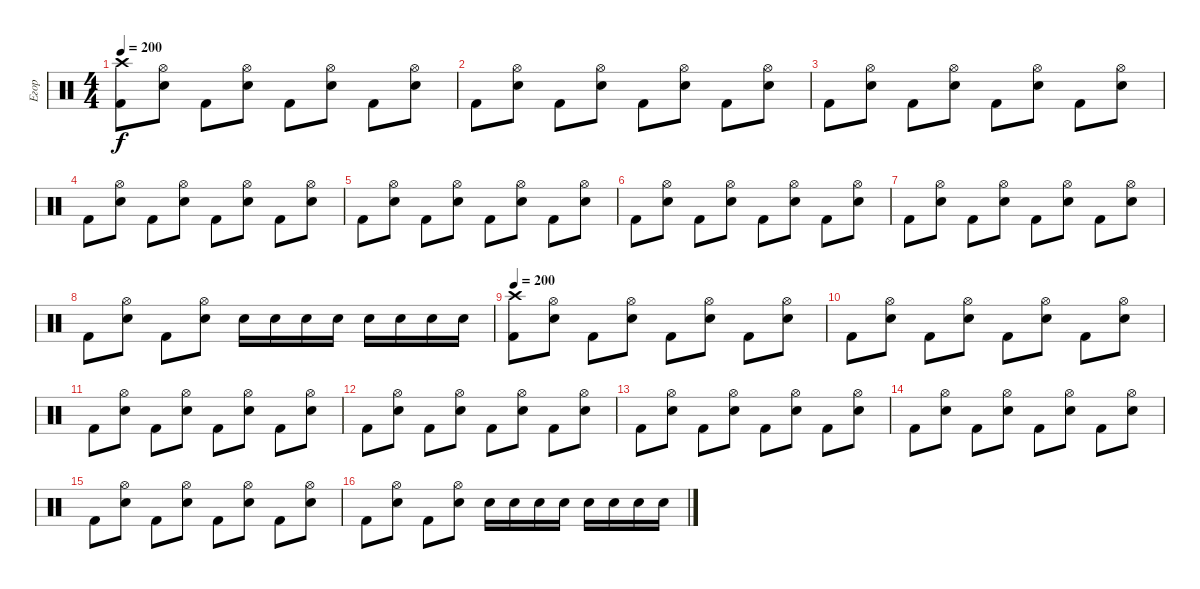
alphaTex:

\track ("Егор" "Егор") {instrument percussion}
\staff {score}
\articulation defaults
\ts (4 4)
\tempo 200
\clef neutral
\ks c
("Crash high (hit)" "Kick (hit) 2").8{dy f} ("Hi-Hat (open)" "Snare (hit) 2").8 "Kick (hit) 2".8 ("Hi-Hat (open)" "Snare (hit) 2").8 "Kick (hit) 2".8 ("Hi-Hat (open)" "Snare (hit) 2").8 "Kick (hit) 2".8 ("Hi-Hat (open)" "Snare (hit) 2").8 |
"Kick (hit) 2".8 ("Hi-Hat (open)" "Snare (hit) 2").8 "Kick (hit) 2".8 ("Hi-Hat (open)" "Snare (hit) 2").8 "Kick (hit) 2".8 ("Hi-Hat (open)" "Snare (hit) 2").8 "Kick (hit) 2".8 ("Hi-Hat (open)" "Snare (hit) 2").8 |
"Kick (hit) 2".8 ("Hi-Hat (open)" "Snare (hit) 2").8 "Kick (hit) 2".8 ("Hi-Hat (open)" "Snare (hit) 2").8 "Kick (hit) 2".8 ("Hi-Hat (open)" "Snare (hit) 2").8 "Kick (hit) 2".8 ("Hi-Hat (open)" "Snare (hit) 2").8 |
"Kick (hit) 2".8 ("Hi-Hat (open)" "Snare (hit) 2").8 "Kick (hit) 2".8 ("Hi-Hat (open)" "Snare (hit) 2").8 "Kick (hit) 2".8 ("Hi-Hat (open)" "Snare (hit) 2").8 "Kick (hit) 2".8 ("Hi-Hat (open)" "Snare (hit) 2").8 |
"Kick (hit) 2".8 ("Hi-Hat (open)" "Snare (hit) 2").8 "Kick (hit) 2".8 ("Hi-Hat (open)" "Snare (hit) 2").8 "Kick (hit) 2".8 ("Hi-Hat (open)" "Snare (hit) 2").8 "Kick (hit) 2".8 ("Hi-Hat (open)" "Snare (hit) 2").8 |
"Kick (hit) 2".8 ("Hi-Hat (open)" "Snare (hit) 2").8 "Kick (hit) 2".8 ("Hi-Hat (open)" "Snare (hit) 2").8 "Kick (hit) 2".8 ("Hi-Hat (open)" "Snare (hit) 2").8 "Kick (hit) 2".8 ("Hi-Hat (open)" "Snare (hit) 2").8 |
"Kick (hit) 2".8 ("Hi-Hat (open)" "Snare (hit) 2").8 "Kick (hit) 2".8 ("Hi-Hat (open)" "Snare (hit) 2").8 "Kick (hit) 2".8 ("Hi-Hat (open)" "Snare (hit) 2").8 "Kick (hit) 2".8 ("Hi-Hat (open)" "Snare (hit) 2").8 |
"Kick (hit) 2".8 ("Hi-Hat (open)" "Snare (hit) 2").8 "Kick (hit) 2".8 ("Hi-Hat (open)" "Snare (hit) 2").8 "Snare (hit) 2".16 "Snare (hit) 2".16 "Snare (hit) 2".16 "Snare (hit) 2".16 "Snare (hit) 2".16 "Snare (hit) 2".16 "Snare (hit) 2".16 "Snare (hit) 2".16 |
\tempo 200
("Crash high (hit)" "Kick (hit) 2").8 ("Hi-Hat (open)" "Snare (hit) 2").8 "Kick (hit) 2".8 ("Hi-Hat (open)" "Snare (hit) 2").8 "Kick (hit) 2".8 ("Hi-Hat (open)" "Snare (hit) 2").8 "Kick (hit) 2".8 ("Hi-Hat (open)" "Snare (hit) 2").8 |
"Kick (hit) 2".8 ("Hi-Hat (open)" "Snare (hit) 2").8 "Kick (hit) 2".8 ("Hi-Hat (open)" "Snare (hit) 2").8 "Kick (hit) 2".8 ("Hi-Hat (open)" "Snare (hit) 2").8 "Kick (hit) 2".8 ("Hi-Hat (open)" "Snare (hit) 2").8 |
"Kick (hit) 2".8 ("Hi-Hat (open)" "Snare (hit) 2").8 "Kick (hit) 2".8 ("Hi-Hat (open)" "Snare (hit) 2").8 "Kick (hit) 2".8 ("Hi-Hat (open)" "Snare (hit) 2").8 "Kick (hit) 2".8 ("Hi-Hat (open)" "Snare (hit) 2").8 |
"Kick (hit) 2".8 ("Hi-Hat (open)" "Snare (hit) 2").8 "Kick (hit) 2".8 ("Hi-Hat (open)" "Snare (hit) 2").8 "Kick (hit) 2".8 ("Hi-Hat (open)" "Snare (hit) 2").8 "Kick (hit) 2".8 ("Hi-Hat (open)" "Snare (hit) 2").8 |
"Kick (hit) 2".8 ("Hi-Hat (open)" "Snare (hit) 2").8 "Kick (hit) 2".8 ("Hi-Hat (open)" "Snare (hit) 2").8 "Kick (hit) 2".8 ("Hi-Hat (open)" "Snare (hit) 2").8 "Kick (hit) 2".8 ("Hi-Hat (open)" "Snare (hit) 2").8 |
"Kick (hit) 2".8 ("Hi-Hat (open)" "Snare (hit) 2").8 "Kick (hit) 2".8 ("Hi-Hat (open)" "Snare (hit) 2").8 "Kick (hit) 2".8 ("Hi-Hat (open)" "Snare (hit) 2").8 "Kick (hit) 2".8 ("Hi-Hat (open)" "Snare (hit) 2").8 |
"Kick (hit) 2".8 ("Hi-Hat (open)" "Snare (hit) 2").8 "Kick (hit) 2".8 ("Hi-Hat (open)" "Snare (hit) 2").8 "Kick (hit) 2".8 ("Hi-Hat (open)" "Snare (hit) 2").8 "Kick (hit) 2".8 ("Hi-Hat (open)" "Snare (hit) 2").8 |
"Kick (hit) 2".8 ("Hi-Hat (open)" "Snare (hit) 2").8 "Kick (hit) 2".8 ("Hi-Hat (open)" "Snare (hit) 2").8 "Snare (hit) 2".16 "Snare (hit) 2".16 "Snare (hit) 2".16 "Snare (hit) 2".16 "Snare (hit) 2".16 "Snare (hit) 2".16 "Snare (hit) 2".16 "Snare (hit) 2".16
